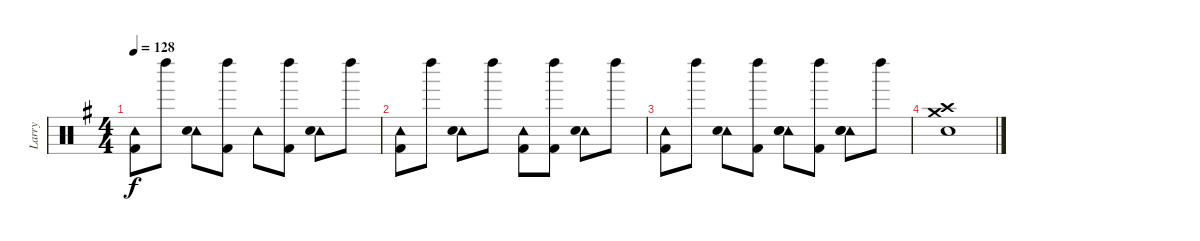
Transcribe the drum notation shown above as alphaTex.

\track ("Larry" "Larry") {instrument percussion}
\staff {score}
\articulation defaults
\ts (4 4)
\tempo 128
\clef neutral
\ks g
("Tambourine (hit)" "Kick (hit) 2").8{dy f} "Left Maraca (hit)".8 ("Tambourine (hit)" "Snare (hit) 2").8 ("Left Maraca (hit)" "Kick (hit) 2").8 "Tambourine (hit)".8 ("Left Maraca (hit)" "Kick (hit) 2").8 ("Tambourine (hit)" "Snare (hit) 2").8 "Left Maraca (hit)".8 |
("Tambourine (hit)" "Kick (hit) 2").8 "Left Maraca (hit)".8 ("Tambourine (hit)" "Snare (hit) 2").8 "Left Maraca (hit)".8 ("Tambourine (hit)" "Kick (hit) 2").8 ("Left Maraca (hit)" "Kick (hit) 2").8 ("Tambourine (hit)" "Snare (hit) 2").8 "Left Maraca (hit)".8 |
("Tambourine (hit)" "Kick (hit) 2").8 "Left Maraca (hit)".8 ("Tambourine (hit)" "Snare (hit) 2").8 ("Left Maraca (hit)" "Kick (hit) 2").8 ("Tambourine (hit)" "Electric Snare (hit)" "Snare (hit) 2").8 ("Left Maraca (hit)" "Kick (hit) 2").8 ("Tambourine (hit)" "Electric Snare (hit)" "Snare (hit) 2").8 "Left Maraca (hit)".8 |
("Crash high (hit)" "Crash medium (hit)" "Electric Snare (hit)").1
